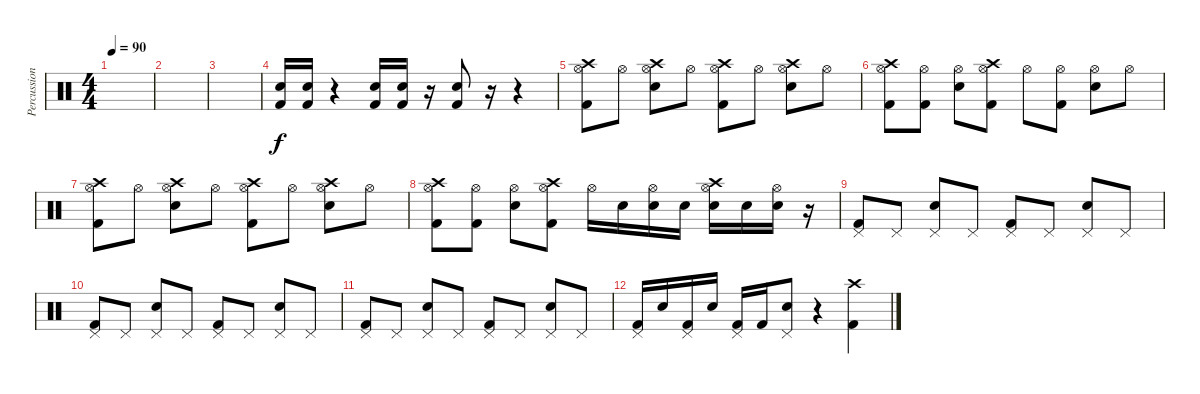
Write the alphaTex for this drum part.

\track ("Percussion" "Percussion") {instrument percussion}
\staff {score}
\articulation defaults
\ts (4 4)
\tempo 90
\clef neutral
\ks c
|
|
|
("Kick (hit) 2" "Snare (hit) 2").16 ("Kick (hit) 2" "Snare (hit) 2").16 r.4 ("Kick (hit) 2" "Snare (hit) 2").16 ("Kick (hit) 2" "Snare (hit) 2").16 r.16 ("Kick (hit) 2" "Snare (hit) 2").8 r.16 r.4 |
("Crash high (hit)" "Kick (hit) 2" "Hi-Hat (open)").8 "Hi-Hat (open)".8 ("Crash high (hit)" "Snare (hit) 2" "Hi-Hat (open)").8 "Hi-Hat (open)".8 ("Crash high (hit)" "Kick (hit) 2" "Hi-Hat (open)").8 "Hi-Hat (open)".8 ("Crash high (hit)" "Snare (hit) 2" "Hi-Hat (open)").8 "Hi-Hat (open)".8 |
("Crash high (hit)" "Kick (hit) 2" "Hi-Hat (open)").8 ("Kick (hit) 2" "Hi-Hat (open)").8 ("Snare (hit) 2" "Hi-Hat (open)").8 ("Crash high (hit)" "Kick (hit) 2" "Hi-Hat (open)").8 "Hi-Hat (open)".8 ("Kick (hit) 2" "Hi-Hat (open)").8 ("Snare (hit) 2" "Hi-Hat (open)").8 "Hi-Hat (open)".8 |
("Crash high (hit)" "Kick (hit) 2" "Hi-Hat (open)").8 "Hi-Hat (open)".8 ("Crash high (hit)" "Snare (hit) 2" "Hi-Hat (open)").8 "Hi-Hat (open)".8 ("Crash high (hit)" "Kick (hit) 2" "Hi-Hat (open)").8 "Hi-Hat (open)".8 ("Crash high (hit)" "Snare (hit) 2" "Hi-Hat (open)").8 "Hi-Hat (open)".8 |
("Crash high (hit)" "Kick (hit) 2" "Hi-Hat (open)").8 ("Kick (hit) 2" "Hi-Hat (open)").8 ("Snare (hit) 2" "Hi-Hat (open)").8 ("Crash high (hit)" "Kick (hit) 2" "Hi-Hat (open)").8 "Hi-Hat (open)".16 "Snare (hit) 2".16 ("Snare (hit) 2" "Hi-Hat (open)").16 "Snare (hit) 2".16 ("Crash high (hit)" "Snare (hit) 2" "Hi-Hat (open)").16 "Snare (hit) 2".16 ("Snare (hit) 2" "Hi-Hat (open)").16 r.16 |
("Pedal Hi-Hat (hit)" "Kick (hit) 2").8 "Pedal Hi-Hat (hit)".8 ("Pedal Hi-Hat (hit)" "Snare (hit) 2").8 "Pedal Hi-Hat (hit)".8 ("Pedal Hi-Hat (hit)" "Kick (hit) 2").8 "Pedal Hi-Hat (hit)".8 ("Pedal Hi-Hat (hit)" "Snare (hit) 2").8 "Pedal Hi-Hat (hit)".8 |
("Pedal Hi-Hat (hit)" "Kick (hit) 2").8 "Pedal Hi-Hat (hit)".8 ("Pedal Hi-Hat (hit)" "Snare (hit) 2").8 "Pedal Hi-Hat (hit)".8 ("Pedal Hi-Hat (hit)" "Kick (hit) 2").8 "Pedal Hi-Hat (hit)".8 ("Pedal Hi-Hat (hit)" "Snare (hit) 2").8 "Pedal Hi-Hat (hit)".8 |
("Pedal Hi-Hat (hit)" "Kick (hit) 2").8 "Pedal Hi-Hat (hit)".8 ("Pedal Hi-Hat (hit)" "Snare (hit) 2").8 "Pedal Hi-Hat (hit)".8 ("Pedal Hi-Hat (hit)" "Kick (hit) 2").8 "Pedal Hi-Hat (hit)".8 ("Pedal Hi-Hat (hit)" "Snare (hit) 2").8 "Pedal Hi-Hat (hit)".8 |
("Pedal Hi-Hat (hit)" "Kick (hit) 2").16 "Snare (hit) 2".16 ("Pedal Hi-Hat (hit)" "Kick (hit) 2").16 "Snare (hit) 2".16 ("Pedal Hi-Hat (hit)" "Kick (hit) 2").16 "Kick (hit) 2".16 ("Pedal Hi-Hat (hit)" "Snare (hit) 2").8 r.4 ("Crash high (hit)" "Kick (hit) 2").4
